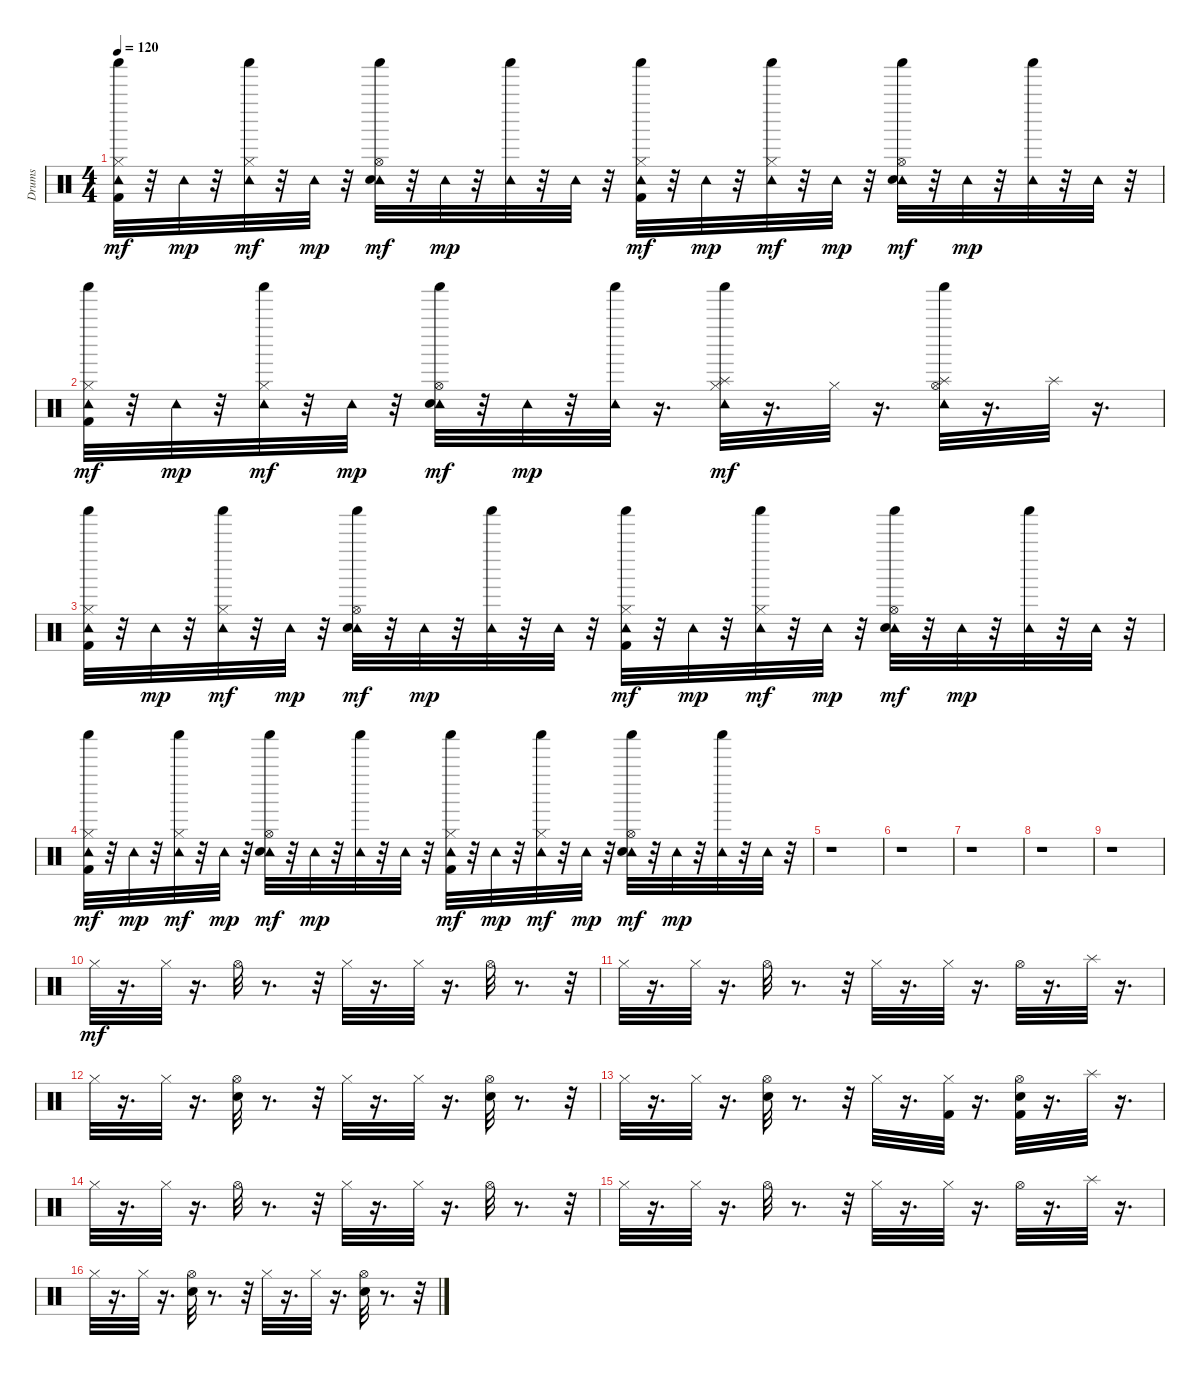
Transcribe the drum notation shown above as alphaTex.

\track ("Drums" "Drums") {instrument percussion}
\staff {score}
\articulation defaults
\ts (4 4)
\tempo 120
\clef neutral
\ks c
("Kick (hit) 2" "Tambourine (hit)" "Shaker (hit)" "Hi-Hat (closed)").32{dy mf} r.32 "Tambourine (hit)".32{dy mp} r.32 ("Tambourine (hit)" "Shaker (hit)" "Hi-Hat (closed)").32{dy mf} r.32 "Tambourine (hit)".32{dy mp} r.32 ("Tambourine (hit)" "Shaker (hit)" "Snare (hit) 2" "Hi-Hat (open)").32{dy mf} r.32 "Tambourine (hit)".32{dy mp} r.32 ("Tambourine (hit)" "Shaker (hit)").32 r.32 "Tambourine (hit)".32 r.32 ("Kick (hit) 2" "Tambourine (hit)" "Shaker (hit)" "Hi-Hat (closed)").32{dy mf} r.32 "Tambourine (hit)".32{dy mp} r.32 ("Tambourine (hit)" "Shaker (hit)" "Hi-Hat (closed)").32{dy mf} r.32 "Tambourine (hit)".32{dy mp} r.32 ("Tambourine (hit)" "Shaker (hit)" "Snare (hit) 2" "Hi-Hat (open)").32{dy mf} r.32 "Tambourine (hit)".32{dy mp} r.32 ("Tambourine (hit)" "Shaker (hit)").32 r.32 "Tambourine (hit)".32 r.32 |
("Kick (hit) 2" "Tambourine (hit)" "Shaker (hit)" "Hi-Hat (closed)").32{dy mf} r.32 "Tambourine (hit)".32{dy mp} r.32 ("Tambourine (hit)" "Shaker (hit)" "Hi-Hat (closed)").32{dy mf} r.32 "Tambourine (hit)".32{dy mp} r.32 ("Tambourine (hit)" "Shaker (hit)" "Snare (hit) 2" "Hi-Hat (open)").32{dy mf} r.32 "Tambourine (hit)".32{dy mp} r.32 ("Tambourine (hit)" "Shaker (hit)").32 r.16{d} ("Tambourine (hit)" "Shaker (hit)" "Splash (hit)" "Hi-Hat (closed)").32{dy mf} r.16{d} "Hi-Hat (closed)".32 r.16{d} ("Tambourine (hit)" "Shaker (hit)" "Splash (hit)" "Hi-Hat (open)").32 r.16{d} "Splash (hit)".32 r.16{d} |
("Kick (hit) 2" "Tambourine (hit)" "Shaker (hit)" "Hi-Hat (closed)").32 r.32 "Tambourine (hit)".32{dy mp} r.32 ("Tambourine (hit)" "Shaker (hit)" "Hi-Hat (closed)").32{dy mf} r.32 "Tambourine (hit)".32{dy mp} r.32 ("Tambourine (hit)" "Shaker (hit)" "Snare (hit) 2" "Hi-Hat (open)").32{dy mf} r.32 "Tambourine (hit)".32{dy mp} r.32 ("Tambourine (hit)" "Shaker (hit)").32 r.32 "Tambourine (hit)".32 r.32 ("Kick (hit) 2" "Tambourine (hit)" "Shaker (hit)" "Hi-Hat (closed)").32{dy mf} r.32 "Tambourine (hit)".32{dy mp} r.32 ("Tambourine (hit)" "Shaker (hit)" "Hi-Hat (closed)").32{dy mf} r.32 "Tambourine (hit)".32{dy mp} r.32 ("Tambourine (hit)" "Shaker (hit)" "Snare (hit) 2" "Hi-Hat (open)").32{dy mf} r.32 "Tambourine (hit)".32{dy mp} r.32 ("Tambourine (hit)" "Shaker (hit)").32 r.32 "Tambourine (hit)".32 r.32 |
("Kick (hit) 2" "Tambourine (hit)" "Shaker (hit)" "Hi-Hat (closed)").32{dy mf} r.32 "Tambourine (hit)".32{dy mp} r.32 ("Tambourine (hit)" "Shaker (hit)" "Hi-Hat (closed)").32{dy mf} r.32 "Tambourine (hit)".32{dy mp} r.32 ("Tambourine (hit)" "Shaker (hit)" "Snare (hit) 2" "Hi-Hat (open)").32{dy mf} r.32 "Tambourine (hit)".32{dy mp} r.32 ("Tambourine (hit)" "Shaker (hit)").32 r.32 "Tambourine (hit)".32 r.32 ("Kick (hit) 2" "Tambourine (hit)" "Shaker (hit)" "Hi-Hat (closed)").32{dy mf} r.32 "Tambourine (hit)".32{dy mp} r.32 ("Tambourine (hit)" "Shaker (hit)" "Hi-Hat (closed)").32{dy mf} r.32 "Tambourine (hit)".32{dy mp} r.32 ("Tambourine (hit)" "Shaker (hit)" "Snare (hit) 2" "Hi-Hat (open)").32{dy mf} r.32 "Tambourine (hit)".32{dy mp} r.32 ("Tambourine (hit)" "Shaker (hit)").32 r.32 "Tambourine (hit)".32 r.32 |
r.1 |
r.1 |
r.1 |
r.1 |
r.1 |
"Hi-Hat (closed)".32{dy mf} r.16{d} "Hi-Hat (closed)".32 r.16{d} "Hi-Hat (open)".32 r.8{d} r.32 "Hi-Hat (closed)".32 r.16{d} "Hi-Hat (closed)".32 r.16{d} "Hi-Hat (open)".32 r.8{d} r.32 |
"Hi-Hat (closed)".32 r.16{d} "Hi-Hat (closed)".32 r.16{d} "Hi-Hat (open)".32 r.8{d} r.32 "Hi-Hat (closed)".32 r.16{d} "Hi-Hat (closed)".32 r.16{d} "Hi-Hat (open)".32 r.16{d} "Splash (hit)".32 r.16{d} |
"Hi-Hat (closed)".32 r.16{d} "Hi-Hat (closed)".32 r.16{d} ("Snare (hit) 2" "Hi-Hat (open)").32 r.8{d} r.32 "Hi-Hat (closed)".32 r.16{d} "Hi-Hat (closed)".32 r.16{d} ("Snare (hit) 2" "Hi-Hat (open)").32 r.8{d} r.32 |
"Hi-Hat (closed)".32 r.16{d} "Hi-Hat (closed)".32 r.16{d} ("Snare (hit) 2" "Hi-Hat (open)").32 r.8{d} r.32 "Hi-Hat (closed)".32 r.16{d} ("Kick (hit) 2" "Hi-Hat (closed)").32 r.16{d} ("Kick (hit) 2" "Snare (hit) 2" "Hi-Hat (open)").32 r.16{d} "Splash (hit)".32 r.16{d} |
"Hi-Hat (closed)".32 r.16{d} "Hi-Hat (closed)".32 r.16{d} "Hi-Hat (open)".32 r.8{d} r.32 "Hi-Hat (closed)".32 r.16{d} "Hi-Hat (closed)".32 r.16{d} "Hi-Hat (open)".32 r.8{d} r.32 |
"Hi-Hat (closed)".32 r.16{d} "Hi-Hat (closed)".32 r.16{d} "Hi-Hat (open)".32 r.8{d} r.32 "Hi-Hat (closed)".32 r.16{d} "Hi-Hat (closed)".32 r.16{d} "Hi-Hat (open)".32 r.16{d} "Splash (hit)".32 r.16{d} |
"Hi-Hat (closed)".32 r.16{d} "Hi-Hat (closed)".32 r.16{d} ("Snare (hit) 2" "Hi-Hat (open)").32 r.8{d} r.32 "Hi-Hat (closed)".32 r.16{d} "Hi-Hat (closed)".32 r.16{d} ("Snare (hit) 2" "Hi-Hat (open)").32 r.8{d} r.32
